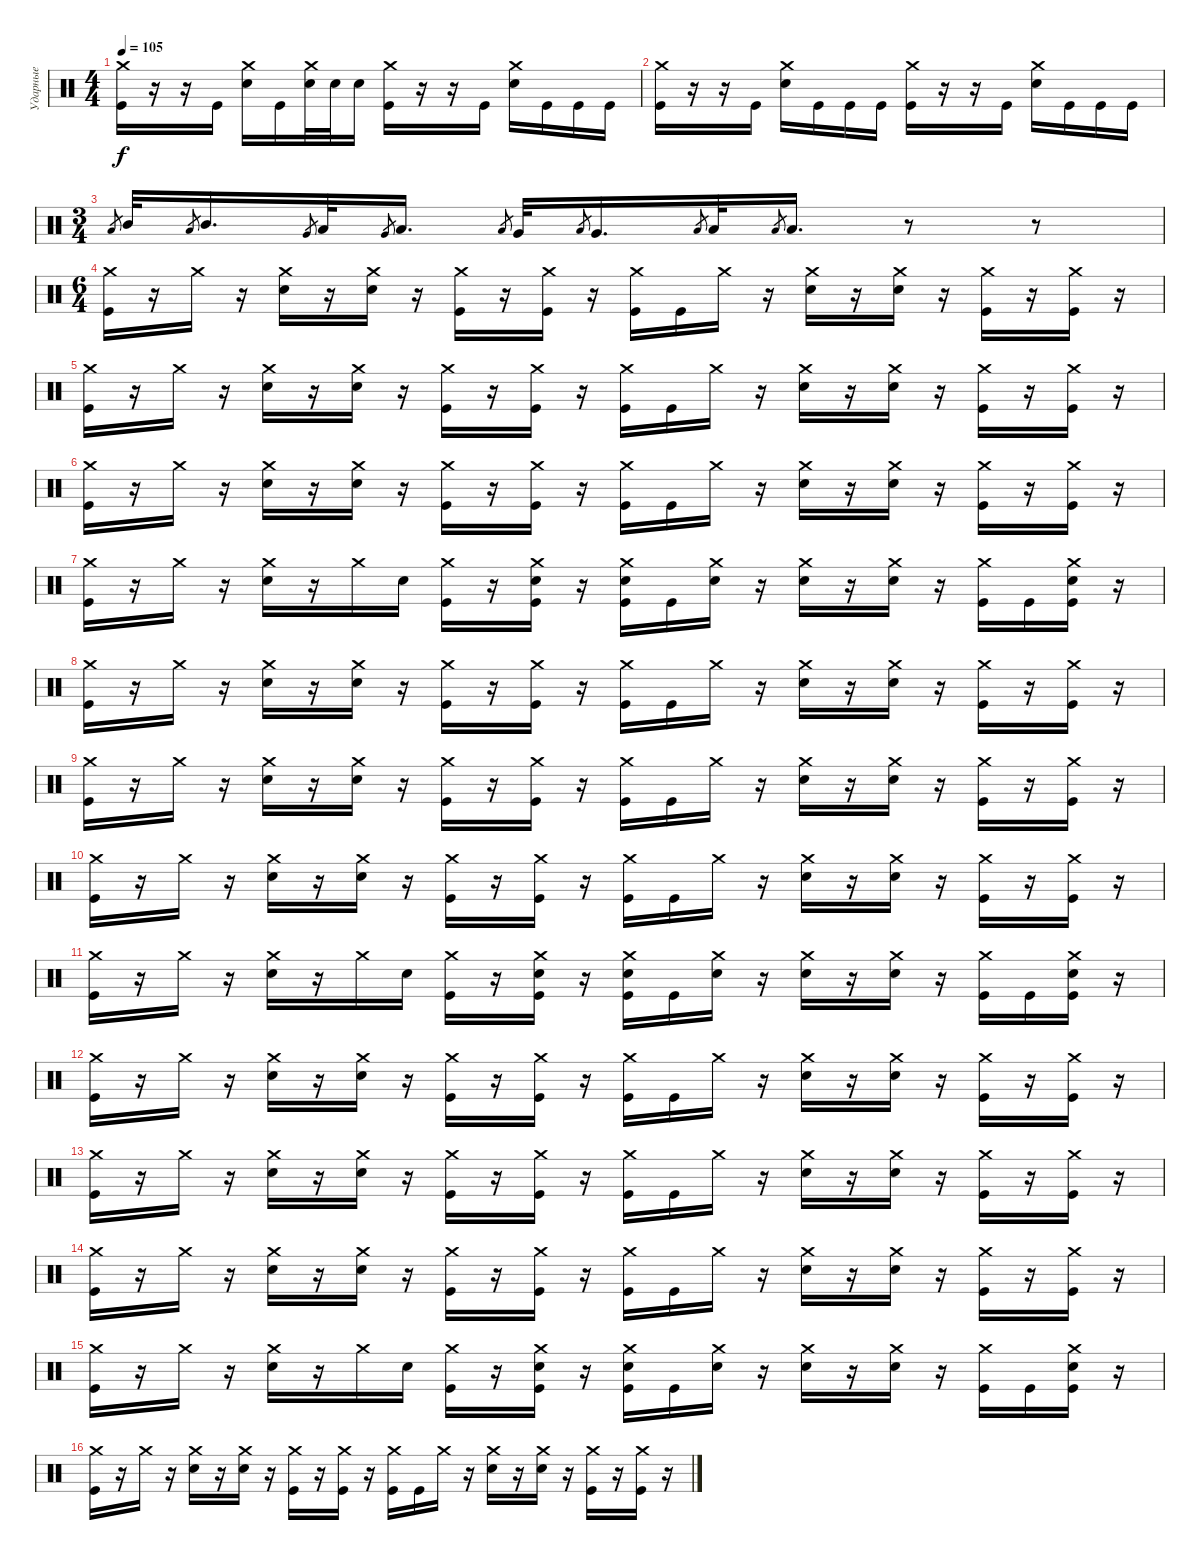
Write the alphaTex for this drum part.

\track ("Ударные" "Ударные") {instrument percussion}
\staff {score}
\articulation defaults
\ts (4 4)
\tempo 105
\clef neutral
\ks c
("Crash medium (hit)" "Kick (hit)").16{dy f} r.16 r.16 "Kick (hit)".16 ("Crash medium (hit)" "Electric Snare (hit)").16 "Kick (hit)".16 ("Crash medium (hit)" "Electric Snare (hit)").32 "Electric Snare (hit)".32 "Electric Snare (hit)".16 ("Crash medium (hit)" "Kick (hit)").16 r.16 r.16 "Kick (hit)".16 ("Crash medium (hit)" "Electric Snare (hit)").16 "Kick (hit)".16 "Kick (hit)".16 "Kick (hit)".16 |
("Crash medium (hit)" "Kick (hit)").16 r.16 r.16 "Kick (hit)".16 ("Crash medium (hit)" "Electric Snare (hit)").16 "Kick (hit)".16 "Kick (hit)".16 "Kick (hit)".16 ("Crash medium (hit)" "Kick (hit)").16 r.16 r.16 "Kick (hit)".16 ("Crash medium (hit)" "Electric Snare (hit)").16 "Kick (hit)".16 "Kick (hit)".16 "Kick (hit)".16 |
\ts (3 4)
"Low Tom (hit)".8{gr} "Mid Tom (hit)".32 "Low Tom (hit)".8{gr} "Mid Tom (hit)".16{d} "Very Low Tom (hit)".8{gr} "Low Tom (hit)".32 "Very Low Tom (hit)".8{gr} "Low Tom (hit)".16{d} "Low Floor Tom (hit)".8{gr} "Very Low Tom (hit)".32 "Low Floor Tom (hit)".8{gr} "Very Low Tom (hit)".16{d} "Low Floor Tom (hit)".8{gr} "Low Floor Tom (hit)".32 "Low Floor Tom (hit)".8{gr} "Low Floor Tom (hit)".16{d} r.8 r.8 |
\ts (6 4)
("Crash medium (hit)" "Kick (hit)").16 r.16 "Crash medium (hit)".16 r.16 ("Crash medium (hit)" "Electric Snare (hit)").16 r.16 ("Crash medium (hit)" "Electric Snare (hit)").16 r.16 ("Crash medium (hit)" "Kick (hit)").16 r.16 ("Crash medium (hit)" "Kick (hit)").16 r.16 ("Crash medium (hit)" "Kick (hit)").16 "Kick (hit)".16 "Crash medium (hit)".16 r.16 ("Crash medium (hit)" "Electric Snare (hit)").16 r.16 ("Crash medium (hit)" "Electric Snare (hit)").16 r.16 ("Crash medium (hit)" "Kick (hit)").16 r.16 ("Crash medium (hit)" "Kick (hit)").16 r.16 |
("Crash medium (hit)" "Kick (hit)").16 r.16 "Crash medium (hit)".16 r.16 ("Crash medium (hit)" "Electric Snare (hit)").16 r.16 ("Crash medium (hit)" "Electric Snare (hit)").16 r.16 ("Crash medium (hit)" "Kick (hit)").16 r.16 ("Crash medium (hit)" "Kick (hit)").16 r.16 ("Crash medium (hit)" "Kick (hit)").16 "Kick (hit)".16 "Crash medium (hit)".16 r.16 ("Crash medium (hit)" "Electric Snare (hit)").16 r.16 ("Crash medium (hit)" "Electric Snare (hit)").16 r.16 ("Crash medium (hit)" "Kick (hit)").16 r.16 ("Crash medium (hit)" "Kick (hit)").16 r.16 |
("Crash medium (hit)" "Kick (hit)").16 r.16 "Crash medium (hit)".16 r.16 ("Crash medium (hit)" "Electric Snare (hit)").16 r.16 ("Crash medium (hit)" "Electric Snare (hit)").16 r.16 ("Crash medium (hit)" "Kick (hit)").16 r.16 ("Crash medium (hit)" "Kick (hit)").16 r.16 ("Crash medium (hit)" "Kick (hit)").16 "Kick (hit)".16 "Crash medium (hit)".16 r.16 ("Crash medium (hit)" "Electric Snare (hit)").16 r.16 ("Crash medium (hit)" "Electric Snare (hit)").16 r.16 ("Crash medium (hit)" "Kick (hit)").16 r.16 ("Crash medium (hit)" "Kick (hit)").16 r.16 |
("Crash medium (hit)" "Kick (hit)").16 r.16 "Crash medium (hit)".16 r.16 ("Crash medium (hit)" "Electric Snare (hit)").16 r.16 "Crash medium (hit)".16 "Electric Snare (hit)".16 ("Crash medium (hit)" "Kick (hit)").16 r.16 ("Crash medium (hit)" "Electric Snare (hit)" "Kick (hit)").16 r.16 ("Crash medium (hit)" "Electric Snare (hit)" "Kick (hit)").16 "Kick (hit)".16 ("Crash medium (hit)" "Electric Snare (hit)").16 r.16 ("Crash medium (hit)" "Electric Snare (hit)").16 r.16 ("Crash medium (hit)" "Electric Snare (hit)").16 r.16 ("Crash medium (hit)" "Kick (hit)").16 "Kick (hit)".16 ("Crash medium (hit)" "Electric Snare (hit)" "Kick (hit)").16 r.16 |
("Crash medium (hit)" "Kick (hit)").16 r.16 "Crash medium (hit)".16 r.16 ("Crash medium (hit)" "Electric Snare (hit)").16 r.16 ("Crash medium (hit)" "Electric Snare (hit)").16 r.16 ("Crash medium (hit)" "Kick (hit)").16 r.16 ("Crash medium (hit)" "Kick (hit)").16 r.16 ("Crash medium (hit)" "Kick (hit)").16 "Kick (hit)".16 "Crash medium (hit)".16 r.16 ("Crash medium (hit)" "Electric Snare (hit)").16 r.16 ("Crash medium (hit)" "Electric Snare (hit)").16 r.16 ("Crash medium (hit)" "Kick (hit)").16 r.16 ("Crash medium (hit)" "Kick (hit)").16 r.16 |
("Crash medium (hit)" "Kick (hit)").16 r.16 "Crash medium (hit)".16 r.16 ("Crash medium (hit)" "Electric Snare (hit)").16 r.16 ("Crash medium (hit)" "Electric Snare (hit)").16 r.16 ("Crash medium (hit)" "Kick (hit)").16 r.16 ("Crash medium (hit)" "Kick (hit)").16 r.16 ("Crash medium (hit)" "Kick (hit)").16 "Kick (hit)".16 "Crash medium (hit)".16 r.16 ("Crash medium (hit)" "Electric Snare (hit)").16 r.16 ("Crash medium (hit)" "Electric Snare (hit)").16 r.16 ("Crash medium (hit)" "Kick (hit)").16 r.16 ("Crash medium (hit)" "Kick (hit)").16 r.16 |
("Crash medium (hit)" "Kick (hit)").16 r.16 "Crash medium (hit)".16 r.16 ("Crash medium (hit)" "Electric Snare (hit)").16 r.16 ("Crash medium (hit)" "Electric Snare (hit)").16 r.16 ("Crash medium (hit)" "Kick (hit)").16 r.16 ("Crash medium (hit)" "Kick (hit)").16 r.16 ("Crash medium (hit)" "Kick (hit)").16 "Kick (hit)".16 "Crash medium (hit)".16 r.16 ("Crash medium (hit)" "Electric Snare (hit)").16 r.16 ("Crash medium (hit)" "Electric Snare (hit)").16 r.16 ("Crash medium (hit)" "Kick (hit)").16 r.16 ("Crash medium (hit)" "Kick (hit)").16 r.16 |
("Crash medium (hit)" "Kick (hit)").16 r.16 "Crash medium (hit)".16 r.16 ("Crash medium (hit)" "Electric Snare (hit)").16 r.16 "Crash medium (hit)".16 "Electric Snare (hit)".16 ("Crash medium (hit)" "Kick (hit)").16 r.16 ("Crash medium (hit)" "Electric Snare (hit)" "Kick (hit)").16 r.16 ("Crash medium (hit)" "Electric Snare (hit)" "Kick (hit)").16 "Kick (hit)".16 ("Crash medium (hit)" "Electric Snare (hit)").16 r.16 ("Crash medium (hit)" "Electric Snare (hit)").16 r.16 ("Crash medium (hit)" "Electric Snare (hit)").16 r.16 ("Crash medium (hit)" "Kick (hit)").16 "Kick (hit)".16 ("Crash medium (hit)" "Electric Snare (hit)" "Kick (hit)").16 r.16 |
("Crash medium (hit)" "Kick (hit)").16 r.16 "Crash medium (hit)".16 r.16 ("Crash medium (hit)" "Electric Snare (hit)").16 r.16 ("Crash medium (hit)" "Electric Snare (hit)").16 r.16 ("Crash medium (hit)" "Kick (hit)").16 r.16 ("Crash medium (hit)" "Kick (hit)").16 r.16 ("Crash medium (hit)" "Kick (hit)").16 "Kick (hit)".16 "Crash medium (hit)".16 r.16 ("Crash medium (hit)" "Electric Snare (hit)").16 r.16 ("Crash medium (hit)" "Electric Snare (hit)").16 r.16 ("Crash medium (hit)" "Kick (hit)").16 r.16 ("Crash medium (hit)" "Kick (hit)").16 r.16 |
("Crash medium (hit)" "Kick (hit)").16 r.16 "Crash medium (hit)".16 r.16 ("Crash medium (hit)" "Electric Snare (hit)").16 r.16 ("Crash medium (hit)" "Electric Snare (hit)").16 r.16 ("Crash medium (hit)" "Kick (hit)").16 r.16 ("Crash medium (hit)" "Kick (hit)").16 r.16 ("Crash medium (hit)" "Kick (hit)").16 "Kick (hit)".16 "Crash medium (hit)".16 r.16 ("Crash medium (hit)" "Electric Snare (hit)").16 r.16 ("Crash medium (hit)" "Electric Snare (hit)").16 r.16 ("Crash medium (hit)" "Kick (hit)").16 r.16 ("Crash medium (hit)" "Kick (hit)").16 r.16 |
("Crash medium (hit)" "Kick (hit)").16 r.16 "Crash medium (hit)".16 r.16 ("Crash medium (hit)" "Electric Snare (hit)").16 r.16 ("Crash medium (hit)" "Electric Snare (hit)").16 r.16 ("Crash medium (hit)" "Kick (hit)").16 r.16 ("Crash medium (hit)" "Kick (hit)").16 r.16 ("Crash medium (hit)" "Kick (hit)").16 "Kick (hit)".16 "Crash medium (hit)".16 r.16 ("Crash medium (hit)" "Electric Snare (hit)").16 r.16 ("Crash medium (hit)" "Electric Snare (hit)").16 r.16 ("Crash medium (hit)" "Kick (hit)").16 r.16 ("Crash medium (hit)" "Kick (hit)").16 r.16 |
("Crash medium (hit)" "Kick (hit)").16 r.16 "Crash medium (hit)".16 r.16 ("Crash medium (hit)" "Electric Snare (hit)").16 r.16 "Crash medium (hit)".16 "Electric Snare (hit)".16 ("Crash medium (hit)" "Kick (hit)").16 r.16 ("Crash medium (hit)" "Electric Snare (hit)" "Kick (hit)").16 r.16 ("Crash medium (hit)" "Electric Snare (hit)" "Kick (hit)").16 "Kick (hit)".16 ("Crash medium (hit)" "Electric Snare (hit)").16 r.16 ("Crash medium (hit)" "Electric Snare (hit)").16 r.16 ("Crash medium (hit)" "Electric Snare (hit)").16 r.16 ("Crash medium (hit)" "Kick (hit)").16 "Kick (hit)".16 ("Crash medium (hit)" "Electric Snare (hit)" "Kick (hit)").16 r.16 |
("Crash medium (hit)" "Kick (hit)").16 r.16 "Crash medium (hit)".16 r.16 ("Crash medium (hit)" "Electric Snare (hit)").16 r.16 ("Crash medium (hit)" "Electric Snare (hit)").16 r.16 ("Crash medium (hit)" "Kick (hit)").16 r.16 ("Crash medium (hit)" "Kick (hit)").16 r.16 ("Crash medium (hit)" "Kick (hit)").16 "Kick (hit)".16 "Crash medium (hit)".16 r.16 ("Crash medium (hit)" "Electric Snare (hit)").16 r.16 ("Crash medium (hit)" "Electric Snare (hit)").16 r.16 ("Crash medium (hit)" "Kick (hit)").16 r.16 ("Crash medium (hit)" "Kick (hit)").16 r.16
